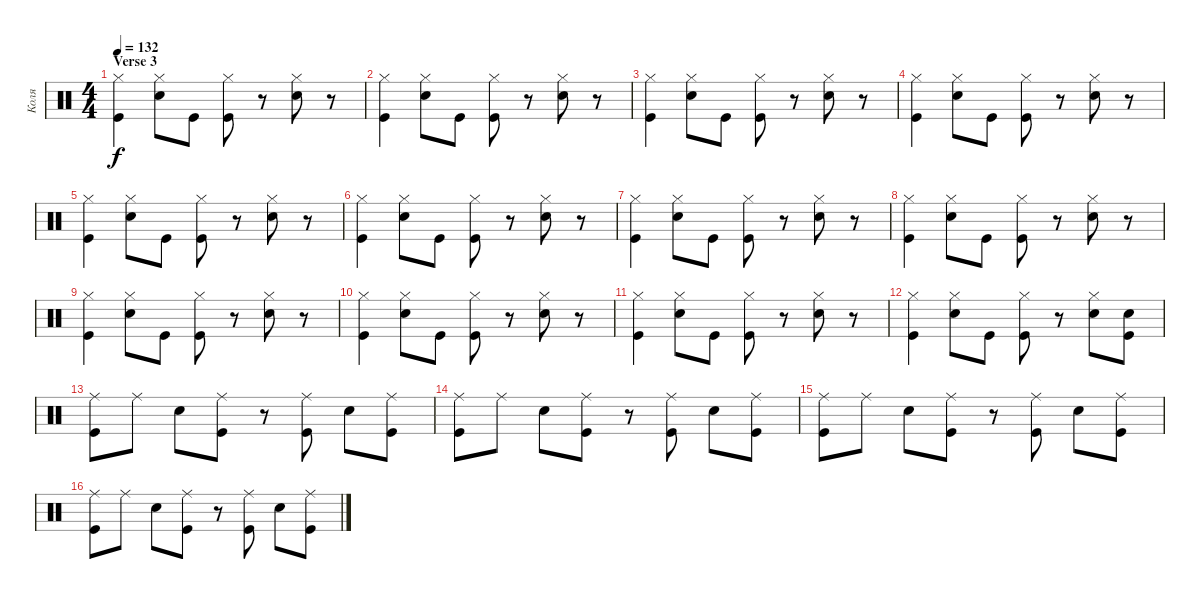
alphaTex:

\track ("Коля" "Коля") {instrument percussion}
\staff {score}
\articulation defaults
\ts (4 4)
\section ("" "Verse 3")
\tempo 132
\clef neutral
\ks c
("Hi-Hat (closed)" "Kick (hit)").4{dy f} ("Hi-Hat (closed)" "Snare (hit) 2").8 "Kick (hit)".8 ("Hi-Hat (closed)" "Kick (hit)").8 r.8 ("Hi-Hat (closed)" "Snare (hit) 2").8 r.8 |
("Hi-Hat (closed)" "Kick (hit)").4 ("Hi-Hat (closed)" "Snare (hit) 2").8 "Kick (hit)".8 ("Hi-Hat (closed)" "Kick (hit)").8 r.8 ("Hi-Hat (closed)" "Snare (hit) 2").8 r.8 |
("Hi-Hat (closed)" "Kick (hit)").4 ("Hi-Hat (closed)" "Snare (hit) 2").8 "Kick (hit)".8 ("Hi-Hat (closed)" "Kick (hit)").8 r.8 ("Hi-Hat (closed)" "Snare (hit) 2").8 r.8 |
("Hi-Hat (closed)" "Kick (hit)").4 ("Hi-Hat (closed)" "Snare (hit) 2").8 "Kick (hit)".8 ("Hi-Hat (closed)" "Kick (hit)").8 r.8 ("Hi-Hat (closed)" "Snare (hit) 2").8 r.8 |
("Hi-Hat (closed)" "Kick (hit)").4 ("Hi-Hat (closed)" "Snare (hit) 2").8 "Kick (hit)".8 ("Hi-Hat (closed)" "Kick (hit)").8 r.8 ("Hi-Hat (closed)" "Snare (hit) 2").8 r.8 |
("Hi-Hat (closed)" "Kick (hit)").4 ("Hi-Hat (closed)" "Snare (hit) 2").8 "Kick (hit)".8 ("Hi-Hat (closed)" "Kick (hit)").8 r.8 ("Hi-Hat (closed)" "Snare (hit) 2").8 r.8 |
("Hi-Hat (closed)" "Kick (hit)").4 ("Hi-Hat (closed)" "Snare (hit) 2").8 "Kick (hit)".8 ("Hi-Hat (closed)" "Kick (hit)").8 r.8 ("Hi-Hat (closed)" "Snare (hit) 2").8 r.8 |
("Hi-Hat (closed)" "Kick (hit)").4 ("Hi-Hat (closed)" "Snare (hit) 2").8 "Kick (hit)".8 ("Hi-Hat (closed)" "Kick (hit)").8 r.8 ("Hi-Hat (closed)" "Snare (hit) 2").8 r.8 |
("Hi-Hat (closed)" "Kick (hit)").4 ("Hi-Hat (closed)" "Snare (hit) 2").8 "Kick (hit)".8 ("Hi-Hat (closed)" "Kick (hit)").8 r.8 ("Hi-Hat (closed)" "Snare (hit) 2").8 r.8 |
("Hi-Hat (closed)" "Kick (hit)").4 ("Hi-Hat (closed)" "Snare (hit) 2").8 "Kick (hit)".8 ("Hi-Hat (closed)" "Kick (hit)").8 r.8 ("Hi-Hat (closed)" "Snare (hit) 2").8 r.8 |
("Hi-Hat (closed)" "Kick (hit)").4 ("Hi-Hat (closed)" "Snare (hit) 2").8 "Kick (hit)".8 ("Hi-Hat (closed)" "Kick (hit)").8 r.8 ("Hi-Hat (closed)" "Snare (hit) 2").8 r.8 |
("Hi-Hat (closed)" "Kick (hit)").4 ("Hi-Hat (closed)" "Snare (hit) 2").8 "Kick (hit)".8 ("Hi-Hat (closed)" "Kick (hit)").8 r.8 ("Hi-Hat (closed)" "Snare (hit) 2").8 ("Snare (hit) 2" "Kick (hit)").8 |
("Ride (middle)" "Kick (hit)").8 "Ride (middle)".8 "Snare (hit) 2".8 ("Ride (middle)" "Kick (hit)").8 r.8 ("Ride (middle)" "Kick (hit)").8 "Snare (hit) 2".8 ("Ride (middle)" "Kick (hit)").8 |
("Ride (middle)" "Kick (hit)").8 "Ride (middle)".8 "Snare (hit) 2".8 ("Ride (middle)" "Kick (hit)").8 r.8 ("Ride (middle)" "Kick (hit)").8 "Snare (hit) 2".8 ("Ride (middle)" "Kick (hit)").8 |
("Ride (middle)" "Kick (hit)").8 "Ride (middle)".8 "Snare (hit) 2".8 ("Ride (middle)" "Kick (hit)").8 r.8 ("Ride (middle)" "Kick (hit)").8 "Snare (hit) 2".8 ("Ride (middle)" "Kick (hit)").8 |
("Ride (middle)" "Kick (hit)").8 "Ride (middle)".8 "Snare (hit) 2".8 ("Ride (middle)" "Kick (hit)").8 r.8 ("Ride (middle)" "Kick (hit)").8 "Snare (hit) 2".8 ("Ride (middle)" "Kick (hit)").8
